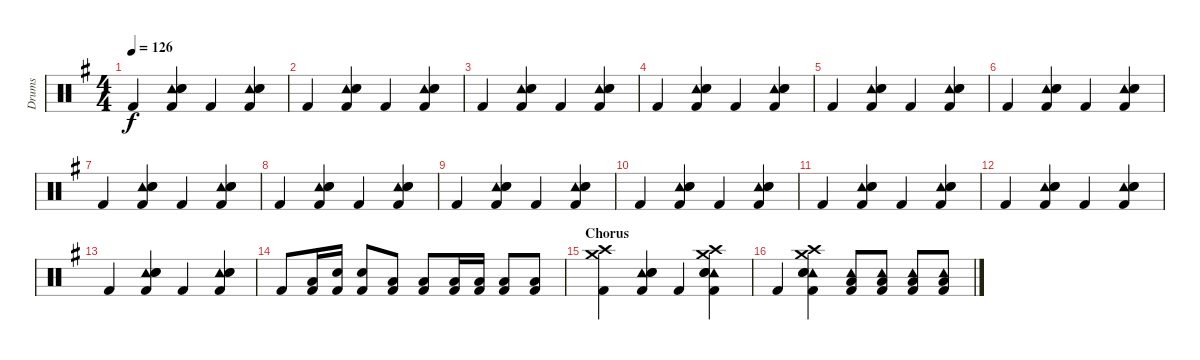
\track ("Drums" "Drums") {instrument percussion}
\staff {score}
\articulation defaults
\ts (4 4)
\tempo 126
\clef neutral
\ks g "Kick (hit) 2".4{dy f}
("Tambourine (hit)" "Hand Clap (hit)" "Snare (hit) 2" "Kick (hit) 2").4 "Kick (hit) 2".4 ("Tambourine (hit)" "Hand Clap (hit)" "Snare (hit) 2" "Kick (hit) 2").4 |
"Kick (hit) 2".4 ("Tambourine (hit)" "Hand Clap (hit)" "Snare (hit) 2" "Kick (hit) 2").4 "Kick (hit) 2".4 ("Tambourine (hit)" "Hand Clap (hit)" "Snare (hit) 2" "Kick (hit) 2").4 |
"Kick (hit) 2".4 ("Tambourine (hit)" "Hand Clap (hit)" "Snare (hit) 2" "Kick (hit) 2").4 "Kick (hit) 2".4 ("Tambourine (hit)" "Hand Clap (hit)" "Snare (hit) 2" "Kick (hit) 2").4 |
"Kick (hit) 2".4 ("Tambourine (hit)" "Hand Clap (hit)" "Snare (hit) 2" "Kick (hit) 2").4 "Kick (hit) 2".4 ("Tambourine (hit)" "Hand Clap (hit)" "Snare (hit) 2" "Kick (hit) 2").4 |
"Kick (hit) 2".4 ("Tambourine (hit)" "Hand Clap (hit)" "Snare (hit) 2" "Kick (hit) 2").4 "Kick (hit) 2".4 ("Tambourine (hit)" "Hand Clap (hit)" "Snare (hit) 2" "Kick (hit) 2").4 |
"Kick (hit) 2".4 ("Tambourine (hit)" "Hand Clap (hit)" "Snare (hit) 2" "Kick (hit) 2").4 "Kick (hit) 2".4 ("Tambourine (hit)" "Hand Clap (hit)" "Snare (hit) 2" "Kick (hit) 2").4 |
"Kick (hit) 2".4 ("Tambourine (hit)" "Hand Clap (hit)" "Snare (hit) 2" "Kick (hit) 2").4 "Kick (hit) 2".4 ("Tambourine (hit)" "Hand Clap (hit)" "Snare (hit) 2" "Kick (hit) 2").4 |
"Kick (hit) 2".4 ("Tambourine (hit)" "Hand Clap (hit)" "Snare (hit) 2" "Kick (hit) 2").4 "Kick (hit) 2".4 ("Tambourine (hit)" "Hand Clap (hit)" "Snare (hit) 2" "Kick (hit) 2").4 |
"Kick (hit) 2".4 ("Tambourine (hit)" "Hand Clap (hit)" "Snare (hit) 2" "Kick (hit) 2").4 "Kick (hit) 2".4 ("Tambourine (hit)" "Hand Clap (hit)" "Snare (hit) 2" "Kick (hit) 2").4 |
"Kick (hit) 2".4 ("Tambourine (hit)" "Hand Clap (hit)" "Snare (hit) 2" "Kick (hit) 2").4 "Kick (hit) 2".4 ("Tambourine (hit)" "Hand Clap (hit)" "Snare (hit) 2" "Kick (hit) 2").4 |
"Kick (hit) 2".4 ("Tambourine (hit)" "Hand Clap (hit)" "Snare (hit) 2" "Kick (hit) 2").4 "Kick (hit) 2".4 ("Tambourine (hit)" "Hand Clap (hit)" "Snare (hit) 2" "Kick (hit) 2").4 |
"Kick (hit) 2".4 ("Tambourine (hit)" "Hand Clap (hit)" "Snare (hit) 2" "Kick (hit) 2").4 "Kick (hit) 2".4 ("Tambourine (hit)" "Hand Clap (hit)" "Snare (hit) 2" "Kick (hit) 2").4 |
"Kick (hit) 2".4 ("Tambourine (hit)" "Hand Clap (hit)" "Snare (hit) 2" "Kick (hit) 2").4 "Kick (hit) 2".4 ("Tambourine (hit)" "Hand Clap (hit)" "Snare (hit) 2" "Kick (hit) 2").4 |
"Kick (hit) 2".8 ("Low Floor Tom (hit)" "Kick (hit) 2").16 ("Snare (hit) 2" "Kick (hit) 2").16 ("Snare (hit) 2" "Kick (hit) 2").8 ("Low Floor Tom (hit)" "Kick (hit) 2").8 ("Low Floor Tom (hit)" "Kick (hit) 2").8 ("Low Floor Tom (hit)" "Kick (hit) 2").16 ("Low Floor Tom (hit)" "Kick (hit) 2").16 ("Low Floor Tom (hit)" "Kick (hit) 2").8 ("Low Floor Tom (hit)" "Kick (hit) 2").8 |
\section ("" "Chorus")
("Crash medium (hit)" "Crash high (hit)" "Kick (hit) 2").4 ("Tambourine (hit)" "Hand Clap (hit)" "Snare (hit) 2" "Kick (hit) 2").4 "Kick (hit) 2".4 ("Crash medium (hit)" "Crash high (hit)" "Tambourine (hit)" "Hand Clap (hit)" "Snare (hit) 2" "Kick (hit) 2").4 |
"Kick (hit) 2".4 ("Crash medium (hit)" "Crash high (hit)" "Tambourine (hit)" "Hand Clap (hit)" "Snare (hit) 2" "Kick (hit) 2").4 ("Tambourine (hit)" "Low Floor Tom (hit)" "Kick (hit) 2").8 ("Tambourine (hit)" "Low Floor Tom (hit)" "Kick (hit) 2").8 ("Tambourine (hit)" "Low Floor Tom (hit)" "Kick (hit) 2").8 ("Tambourine (hit)" "Low Floor Tom (hit)" "Kick (hit) 2").8
